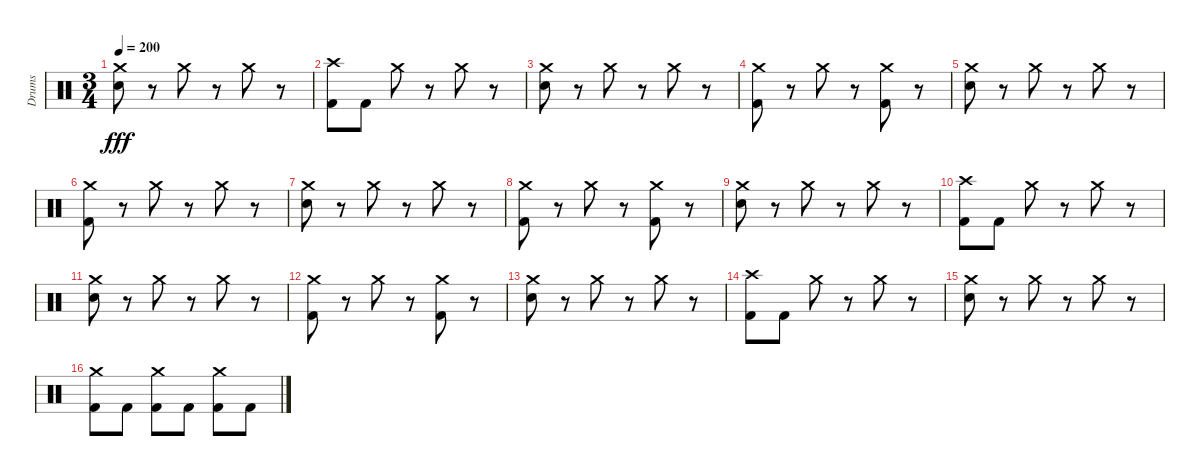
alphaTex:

\track ("Drums" "Drums") {instrument percussion}
\staff {score}
\articulation defaults
\ts (3 4)
\tempo 200
\clef neutral
\ks c
("Crash medium (hit)" "Snare (hit) 2").8{dy fff} r.8 "Crash medium (hit)".8 r.8 "Crash medium (hit)".8 r.8 |
("Crash high (hit)" "Kick (hit) 2").8 "Kick (hit) 2".8 "Crash medium (hit)".8 r.8 "Crash medium (hit)".8 r.8 |
("Crash medium (hit)" "Snare (hit) 2").8 r.8 "Crash medium (hit)".8 r.8 "Crash medium (hit)".8 r.8 |
("Crash medium (hit)" "Kick (hit) 2").8 r.8 "Crash medium (hit)".8 r.8 ("Crash medium (hit)" "Kick (hit) 2").8 r.8 |
("Crash medium (hit)" "Snare (hit) 2").8 r.8 "Crash medium (hit)".8 r.8 "Crash medium (hit)".8 r.8 |
("Crash medium (hit)" "Kick (hit) 2").8 r.8 "Crash medium (hit)".8 r.8 "Crash medium (hit)".8 r.8 |
("Crash medium (hit)" "Snare (hit) 2").8 r.8 "Crash medium (hit)".8 r.8 "Crash medium (hit)".8 r.8 |
("Crash medium (hit)" "Kick (hit) 2").8 r.8 "Crash medium (hit)".8 r.8 ("Crash medium (hit)" "Kick (hit) 2").8 r.8 |
("Crash medium (hit)" "Snare (hit) 2").8 r.8 "Crash medium (hit)".8 r.8 "Crash medium (hit)".8 r.8 |
("Crash high (hit)" "Kick (hit) 2").8 "Kick (hit) 2".8 "Crash medium (hit)".8 r.8 "Crash medium (hit)".8 r.8 |
("Crash medium (hit)" "Snare (hit) 2").8 r.8 "Crash medium (hit)".8 r.8 "Crash medium (hit)".8 r.8 |
("Crash medium (hit)" "Kick (hit) 2").8 r.8 "Crash medium (hit)".8 r.8 ("Crash medium (hit)" "Kick (hit) 2").8 r.8 |
("Crash medium (hit)" "Snare (hit) 2").8 r.8 "Crash medium (hit)".8 r.8 "Crash medium (hit)".8 r.8 |
("Crash high (hit)" "Kick (hit) 2").8 "Kick (hit) 2".8 "Crash medium (hit)".8 r.8 "Crash medium (hit)".8 r.8 |
("Crash medium (hit)" "Snare (hit) 2").8 r.8 "Crash medium (hit)".8 r.8 "Crash medium (hit)".8 r.8 |
("Crash medium (hit)" "Kick (hit) 2").8 "Kick (hit) 2".8 ("Crash medium (hit)" "Kick (hit) 2").8 "Kick (hit) 2".8 ("Crash medium (hit)" "Kick (hit) 2").8 "Kick (hit) 2".8
